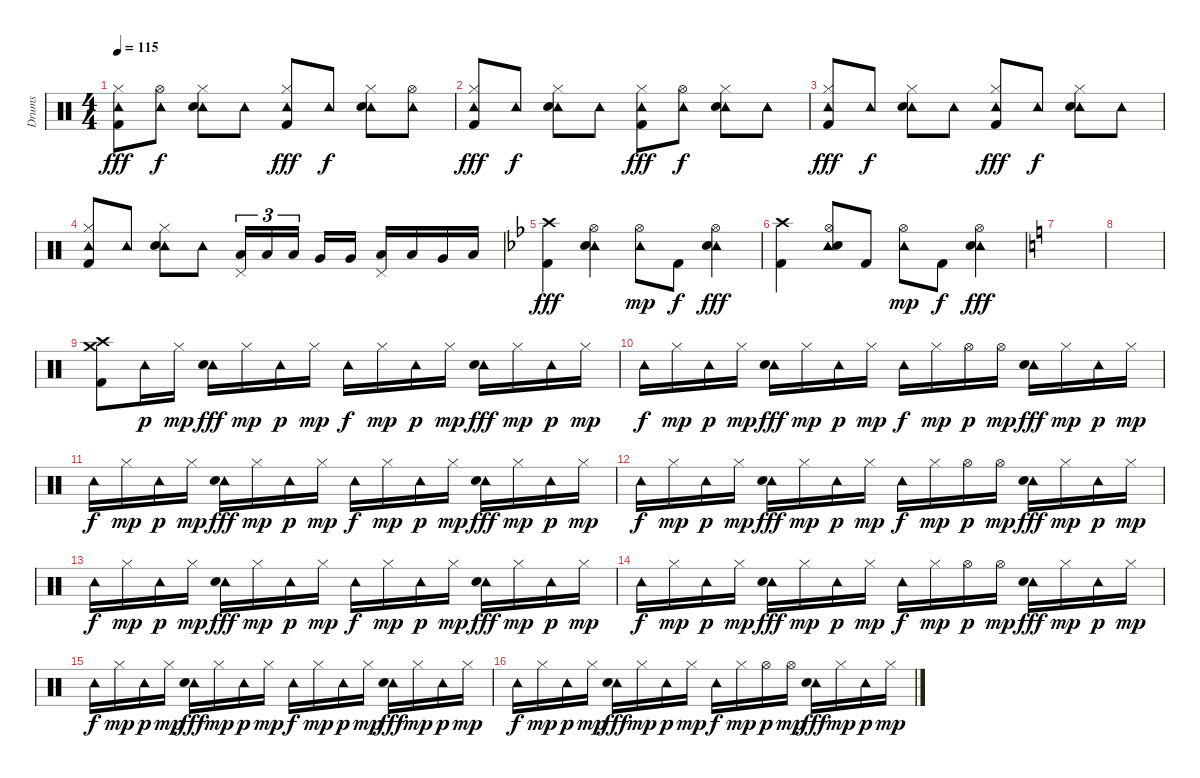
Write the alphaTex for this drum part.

\track ("Drums" "Drums") {instrument percussion}
\staff {score}
\articulation defaults
\ts (4 4)
\tempo 115
\clef neutral
\ks c
("Tambourine (hit)" "Hi-Hat (closed)" "Kick (hit) 2").8{dy fff} ("Tambourine (hit)" "Hi-Hat (open)").8{dy f} ("Tambourine (hit)" "Hi-Hat (closed)" "Electric Snare (hit)").8 "Tambourine (hit)".8 ("Tambourine (hit)" "Hi-Hat (closed)" "Kick (hit) 2").8{dy fff} "Tambourine (hit)".8{dy f} ("Tambourine (hit)" "Hi-Hat (closed)" "Electric Snare (hit)").8 ("Tambourine (hit)" "Hi-Hat (open)").8 |
("Tambourine (hit)" "Hi-Hat (closed)" "Kick (hit) 2").8{dy fff} "Tambourine (hit)".8{dy f} ("Tambourine (hit)" "Hi-Hat (closed)" "Electric Snare (hit)").8 "Tambourine (hit)".8 ("Tambourine (hit)" "Hi-Hat (closed)" "Kick (hit) 2").8{dy fff} ("Tambourine (hit)" "Hi-Hat (open)").8{dy f} ("Tambourine (hit)" "Hi-Hat (closed)" "Electric Snare (hit)").8 "Tambourine (hit)".8 |
("Tambourine (hit)" "Hi-Hat (closed)" "Kick (hit) 2").8{dy fff} "Tambourine (hit)".8{dy f} ("Tambourine (hit)" "Hi-Hat (closed)" "Electric Snare (hit)").8 "Tambourine (hit)".8 ("Tambourine (hit)" "Hi-Hat (closed)" "Kick (hit) 2").8{dy fff} "Tambourine (hit)".8{dy f} ("Tambourine (hit)" "Hi-Hat (closed)" "Electric Snare (hit)").8 "Tambourine (hit)".8 |
("Tambourine (hit)" "Hi-Hat (closed)" "Kick (hit) 2").8 "Tambourine (hit)".8 ("Tambourine (hit)" "Hi-Hat (closed)" "Electric Snare (hit)").8 "Tambourine (hit)".8 ("Pedal Hi-Hat (hit)" "Low Tom (hit)").16{tu (3 2)} "Low Tom (hit)".16{tu (3 2)} "Low Tom (hit)".16{tu (3 2) beam splitsecondary} "Very Low Tom (hit)".16 "Very Low Tom (hit)".16 ("Pedal Hi-Hat (hit)" "Low Tom (hit)").16 "Low Tom (hit)".16 "Very Low Tom (hit)".16 "Low Floor Tom (hit)".16 |
\ks bb
("Crash high (hit)" "Kick (hit) 2").4{dy fff volume 16} ("Hi-Hat (open)" "Tambourine (hit)" "Electric Snare (hit)").4 ("Hi-Hat (open)" "Tambourine (hit)").8{dy mp} "Kick (hit) 2".8{dy f} ("Hi-Hat (open)" "Tambourine (hit)" "Electric Snare (hit)").4{dy fff} |
("Crash high (hit)" "Kick (hit) 2").4 ("Hi-Hat (open)" "Tambourine (hit)" "Electric Snare (hit)").8 "Kick (hit) 2".8 ("Hi-Hat (open)" "Tambourine (hit)").8{dy mp} "Kick (hit) 2".8{dy f} ("Hi-Hat (open)" "Tambourine (hit)" "Electric Snare (hit)").4{dy fff} |
\ks c
|
|
("Crash medium (hit)" "Crash high (hit)" "Kick (hit) 2").8 "Tambourine (hit)".16{dy p} "Hi-Hat (closed)".16{dy mp} ("Tambourine (hit)" "Electric Snare (hit)").16{dy fff} "Hi-Hat (closed)".16{dy mp} "Tambourine (hit)".16{dy p} "Hi-Hat (closed)".16{dy mp} "Tambourine (hit)".16{dy f} "Hi-Hat (closed)".16{dy mp} "Tambourine (hit)".16{dy p} "Hi-Hat (closed)".16{dy mp} ("Tambourine (hit)" "Electric Snare (hit)").16{dy fff} "Hi-Hat (closed)".16{dy mp} "Tambourine (hit)".16{dy p} "Hi-Hat (closed)".16{dy mp} |
"Tambourine (hit)".16{dy f} "Hi-Hat (closed)".16{dy mp} "Tambourine (hit)".16{dy p} "Hi-Hat (closed)".16{dy mp} ("Tambourine (hit)" "Electric Snare (hit)").16{dy fff} "Hi-Hat (closed)".16{dy mp} "Tambourine (hit)".16{dy p} "Hi-Hat (closed)".16{dy mp} "Tambourine (hit)".16{dy f} "Hi-Hat (closed)".16{dy mp} "Hi-Hat (open)".16{dy p} "Hi-Hat (open)".16{dy mp} ("Tambourine (hit)" "Electric Snare (hit)").16{dy fff} "Hi-Hat (closed)".16{dy mp} "Tambourine (hit)".16{dy p} "Hi-Hat (closed)".16{dy mp} |
"Tambourine (hit)".16{dy f} "Hi-Hat (closed)".16{dy mp} "Tambourine (hit)".16{dy p} "Hi-Hat (closed)".16{dy mp} ("Tambourine (hit)" "Electric Snare (hit)").16{dy fff} "Hi-Hat (closed)".16{dy mp} "Tambourine (hit)".16{dy p} "Hi-Hat (closed)".16{dy mp} "Tambourine (hit)".16{dy f} "Hi-Hat (closed)".16{dy mp} "Tambourine (hit)".16{dy p} "Hi-Hat (closed)".16{dy mp} ("Tambourine (hit)" "Electric Snare (hit)").16{dy fff} "Hi-Hat (closed)".16{dy mp} "Tambourine (hit)".16{dy p} "Hi-Hat (closed)".16{dy mp} |
"Tambourine (hit)".16{dy f} "Hi-Hat (closed)".16{dy mp} "Tambourine (hit)".16{dy p} "Hi-Hat (closed)".16{dy mp} ("Tambourine (hit)" "Electric Snare (hit)").16{dy fff} "Hi-Hat (closed)".16{dy mp} "Tambourine (hit)".16{dy p} "Hi-Hat (closed)".16{dy mp} "Tambourine (hit)".16{dy f} "Hi-Hat (closed)".16{dy mp} "Hi-Hat (open)".16{dy p} "Hi-Hat (open)".16{dy mp} ("Tambourine (hit)" "Electric Snare (hit)").16{dy fff} "Hi-Hat (closed)".16{dy mp} "Tambourine (hit)".16{dy p} "Hi-Hat (closed)".16{dy mp} |
"Tambourine (hit)".16{dy f} "Hi-Hat (closed)".16{dy mp} "Tambourine (hit)".16{dy p} "Hi-Hat (closed)".16{dy mp} ("Tambourine (hit)" "Electric Snare (hit)").16{dy fff} "Hi-Hat (closed)".16{dy mp} "Tambourine (hit)".16{dy p} "Hi-Hat (closed)".16{dy mp} "Tambourine (hit)".16{dy f} "Hi-Hat (closed)".16{dy mp} "Tambourine (hit)".16{dy p} "Hi-Hat (closed)".16{dy mp} ("Tambourine (hit)" "Electric Snare (hit)").16{dy fff} "Hi-Hat (closed)".16{dy mp} "Tambourine (hit)".16{dy p} "Hi-Hat (closed)".16{dy mp} |
"Tambourine (hit)".16{dy f} "Hi-Hat (closed)".16{dy mp} "Tambourine (hit)".16{dy p} "Hi-Hat (closed)".16{dy mp} ("Tambourine (hit)" "Electric Snare (hit)").16{dy fff} "Hi-Hat (closed)".16{dy mp} "Tambourine (hit)".16{dy p} "Hi-Hat (closed)".16{dy mp} "Tambourine (hit)".16{dy f} "Hi-Hat (closed)".16{dy mp} "Hi-Hat (open)".16{dy p} "Hi-Hat (open)".16{dy mp} ("Tambourine (hit)" "Electric Snare (hit)").16{dy fff} "Hi-Hat (closed)".16{dy mp} "Tambourine (hit)".16{dy p} "Hi-Hat (closed)".16{dy mp} |
"Tambourine (hit)".16{dy f} "Hi-Hat (closed)".16{dy mp} "Tambourine (hit)".16{dy p} "Hi-Hat (closed)".16{dy mp} ("Tambourine (hit)" "Electric Snare (hit)").16{dy fff} "Hi-Hat (closed)".16{dy mp} "Tambourine (hit)".16{dy p} "Hi-Hat (closed)".16{dy mp} "Tambourine (hit)".16{dy f} "Hi-Hat (closed)".16{dy mp} "Tambourine (hit)".16{dy p} "Hi-Hat (closed)".16{dy mp} ("Tambourine (hit)" "Electric Snare (hit)").16{dy fff} "Hi-Hat (closed)".16{dy mp} "Tambourine (hit)".16{dy p} "Hi-Hat (closed)".16{dy mp} |
"Tambourine (hit)".16{dy f} "Hi-Hat (closed)".16{dy mp} "Tambourine (hit)".16{dy p} "Hi-Hat (closed)".16{dy mp} ("Tambourine (hit)" "Electric Snare (hit)").16{dy fff} "Hi-Hat (closed)".16{dy mp} "Tambourine (hit)".16{dy p} "Hi-Hat (closed)".16{dy mp} "Tambourine (hit)".16{dy f} "Hi-Hat (closed)".16{dy mp} "Hi-Hat (open)".16{dy p} "Hi-Hat (open)".16{dy mp} ("Tambourine (hit)" "Electric Snare (hit)").16{dy fff} "Hi-Hat (closed)".16{dy mp} "Tambourine (hit)".16{dy p} "Hi-Hat (closed)".16{dy mp}
